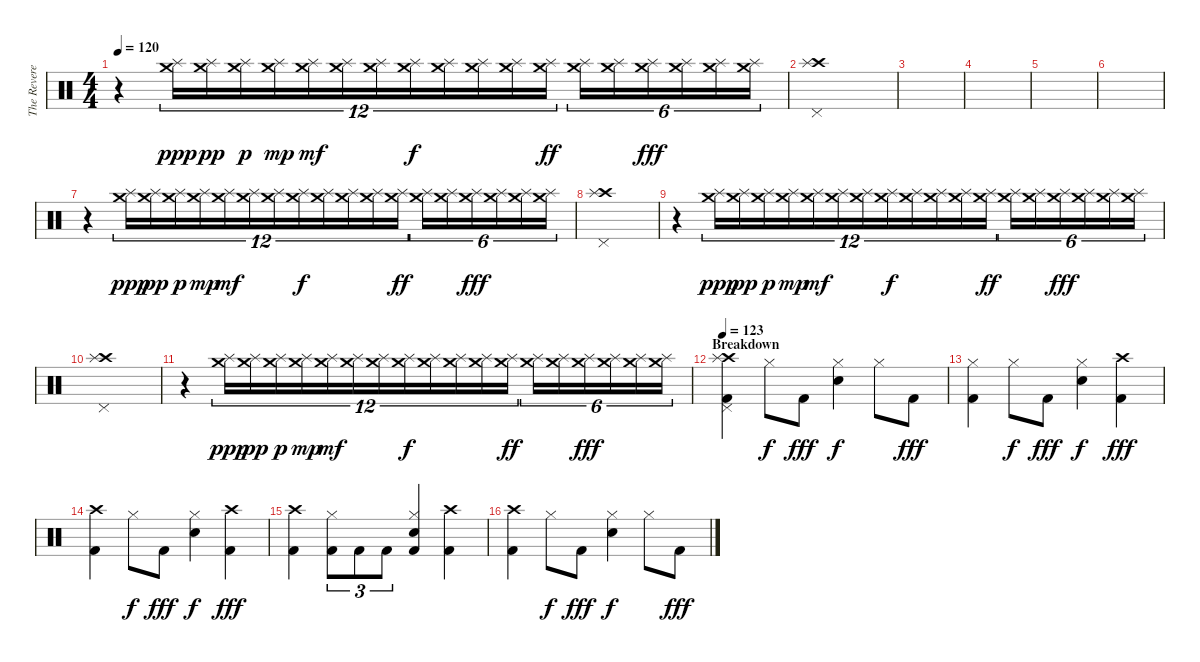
\track ("The Reverend" "The Revere") {instrument percussion}
\staff {score}
\articulation defaults
\ts (4 4)
\tempo 120
\clef neutral
\ks c
r.4{dy fff volume 3} ("Splash (hit)" "Crash medium (hit)").16{tu (12 8) dy ppp volume 16} ("Splash (hit)" "Crash medium (hit)").16{tu (12 8) dy pp} ("Splash (hit)" "Crash medium (hit)").16{tu (12 8) dy p} ("Splash (hit)" "Crash medium (hit)").16{tu (12 8) dy mp} ("Splash (hit)" "Crash medium (hit)").16{tu (12 8) dy mf} ("Splash (hit)" "Crash medium (hit)").16{tu (12 8)} ("Splash (hit)" "Crash medium (hit)").16{tu (12 8)} ("Splash (hit)" "Crash medium (hit)").16{tu (12 8) dy f} ("Splash (hit)" "Crash medium (hit)").16{tu (12 8)} ("Splash (hit)" "Crash medium (hit)").16{tu (12 8)} ("Splash (hit)" "Crash medium (hit)").16{tu (12 8)} ("Splash (hit)" "Crash medium (hit)").16{tu (12 8) dy ff} ("Splash (hit)" "Crash medium (hit)").16{tu (6 4)} ("Splash (hit)" "Crash medium (hit)").16{tu (6 4)} ("Splash (hit)" "Crash medium (hit)").16{tu (6 4) dy fff} ("Splash (hit)" "Crash medium (hit)").16{tu (6 4)} ("Splash (hit)" "Crash medium (hit)").16{tu (6 4)} ("Splash (hit)" "Crash medium (hit)").16{tu (6 4)} |
("Crash high (hit)" "Splash (hit)" "Pedal Hi-Hat (hit)").1 |
|
|
|
|
r.4{volume 3} ("Splash (hit)" "Crash medium (hit)").16{tu (12 8) dy ppp volume 16} ("Splash (hit)" "Crash medium (hit)").16{tu (12 8) dy pp} ("Splash (hit)" "Crash medium (hit)").16{tu (12 8) dy p} ("Splash (hit)" "Crash medium (hit)").16{tu (12 8) dy mp} ("Splash (hit)" "Crash medium (hit)").16{tu (12 8) dy mf} ("Splash (hit)" "Crash medium (hit)").16{tu (12 8)} ("Splash (hit)" "Crash medium (hit)").16{tu (12 8)} ("Splash (hit)" "Crash medium (hit)").16{tu (12 8) dy f} ("Splash (hit)" "Crash medium (hit)").16{tu (12 8)} ("Splash (hit)" "Crash medium (hit)").16{tu (12 8)} ("Splash (hit)" "Crash medium (hit)").16{tu (12 8)} ("Splash (hit)" "Crash medium (hit)").16{tu (12 8) dy ff} ("Splash (hit)" "Crash medium (hit)").16{tu (6 4)} ("Splash (hit)" "Crash medium (hit)").16{tu (6 4)} ("Splash (hit)" "Crash medium (hit)").16{tu (6 4) dy fff} ("Splash (hit)" "Crash medium (hit)").16{tu (6 4)} ("Splash (hit)" "Crash medium (hit)").16{tu (6 4)} ("Splash (hit)" "Crash medium (hit)").16{tu (6 4)} |
("Crash high (hit)" "Splash (hit)" "Pedal Hi-Hat (hit)").1 |
r.4{volume 3} ("Splash (hit)" "Crash medium (hit)").16{tu (12 8) dy ppp volume 16} ("Splash (hit)" "Crash medium (hit)").16{tu (12 8) dy pp} ("Splash (hit)" "Crash medium (hit)").16{tu (12 8) dy p} ("Splash (hit)" "Crash medium (hit)").16{tu (12 8) dy mp} ("Splash (hit)" "Crash medium (hit)").16{tu (12 8) dy mf} ("Splash (hit)" "Crash medium (hit)").16{tu (12 8)} ("Splash (hit)" "Crash medium (hit)").16{tu (12 8)} ("Splash (hit)" "Crash medium (hit)").16{tu (12 8) dy f} ("Splash (hit)" "Crash medium (hit)").16{tu (12 8)} ("Splash (hit)" "Crash medium (hit)").16{tu (12 8)} ("Splash (hit)" "Crash medium (hit)").16{tu (12 8)} ("Splash (hit)" "Crash medium (hit)").16{tu (12 8) dy ff} ("Splash (hit)" "Crash medium (hit)").16{tu (6 4)} ("Splash (hit)" "Crash medium (hit)").16{tu (6 4)} ("Splash (hit)" "Crash medium (hit)").16{tu (6 4) dy fff} ("Splash (hit)" "Crash medium (hit)").16{tu (6 4)} ("Splash (hit)" "Crash medium (hit)").16{tu (6 4)} ("Splash (hit)" "Crash medium (hit)").16{tu (6 4)} |
("Crash high (hit)" "Splash (hit)" "Pedal Hi-Hat (hit)").1 |
r.4{volume 3} ("Splash (hit)" "Crash medium (hit)").16{tu (12 8) dy ppp volume 16} ("Splash (hit)" "Crash medium (hit)").16{tu (12 8) dy pp} ("Splash (hit)" "Crash medium (hit)").16{tu (12 8) dy p} ("Splash (hit)" "Crash medium (hit)").16{tu (12 8) dy mp} ("Splash (hit)" "Crash medium (hit)").16{tu (12 8) dy mf} ("Splash (hit)" "Crash medium (hit)").16{tu (12 8)} ("Splash (hit)" "Crash medium (hit)").16{tu (12 8)} ("Splash (hit)" "Crash medium (hit)").16{tu (12 8) dy f} ("Splash (hit)" "Crash medium (hit)").16{tu (12 8)} ("Splash (hit)" "Crash medium (hit)").16{tu (12 8)} ("Splash (hit)" "Crash medium (hit)").16{tu (12 8)} ("Splash (hit)" "Crash medium (hit)").16{tu (12 8) dy ff} ("Splash (hit)" "Crash medium (hit)").16{tu (6 4)} ("Splash (hit)" "Crash medium (hit)").16{tu (6 4)} ("Splash (hit)" "Crash medium (hit)").16{tu (6 4) dy fff} ("Splash (hit)" "Crash medium (hit)").16{tu (6 4)} ("Splash (hit)" "Crash medium (hit)").16{tu (6 4)} ("Splash (hit)" "Crash medium (hit)").16{tu (6 4)} |
\section ("" "Breakdown")
\tempo 123
("Crash high (hit)" "Splash (hit)" "Pedal Hi-Hat (hit)" "Kick (hit) 2").4 "Hi-Hat (closed)".8{dy f} "Kick (hit) 2".8{dy fff} ("Hi-Hat (closed)" "Electric Snare (hit)").4{dy f} "Hi-Hat (closed)".8 "Kick (hit) 2".8{dy fff} |
("Hi-Hat (closed)" "Kick (hit) 2").4 "Hi-Hat (closed)".8{dy f} "Kick (hit) 2".8{dy fff} ("Hi-Hat (closed)" "Electric Snare (hit)").4{dy f} ("Crash high (hit)" "Kick (hit) 2").4{dy fff} |
("Crash high (hit)" "Kick (hit) 2").4 "Hi-Hat (closed)".8{dy f} "Kick (hit) 2".8{dy fff} ("Hi-Hat (closed)" "Electric Snare (hit)").4{dy f} ("Crash high (hit)" "Kick (hit) 2").4{dy fff} |
("Crash high (hit)" "Kick (hit) 2").4 ("Hi-Hat (closed)" "Kick (hit) 2").8{tu (3 2)} "Kick (hit) 2".8{tu (3 2)} "Kick (hit) 2".8{tu (3 2)} ("Hi-Hat (closed)" "Electric Snare (hit)" "Kick (hit) 2").4 ("Crash high (hit)" "Kick (hit) 2").4 |
("Crash high (hit)" "Kick (hit) 2").4 "Hi-Hat (closed)".8{dy f} "Kick (hit) 2".8{dy fff} ("Hi-Hat (closed)" "Electric Snare (hit)").4{dy f} "Hi-Hat (closed)".8 "Kick (hit) 2".8{dy fff}
